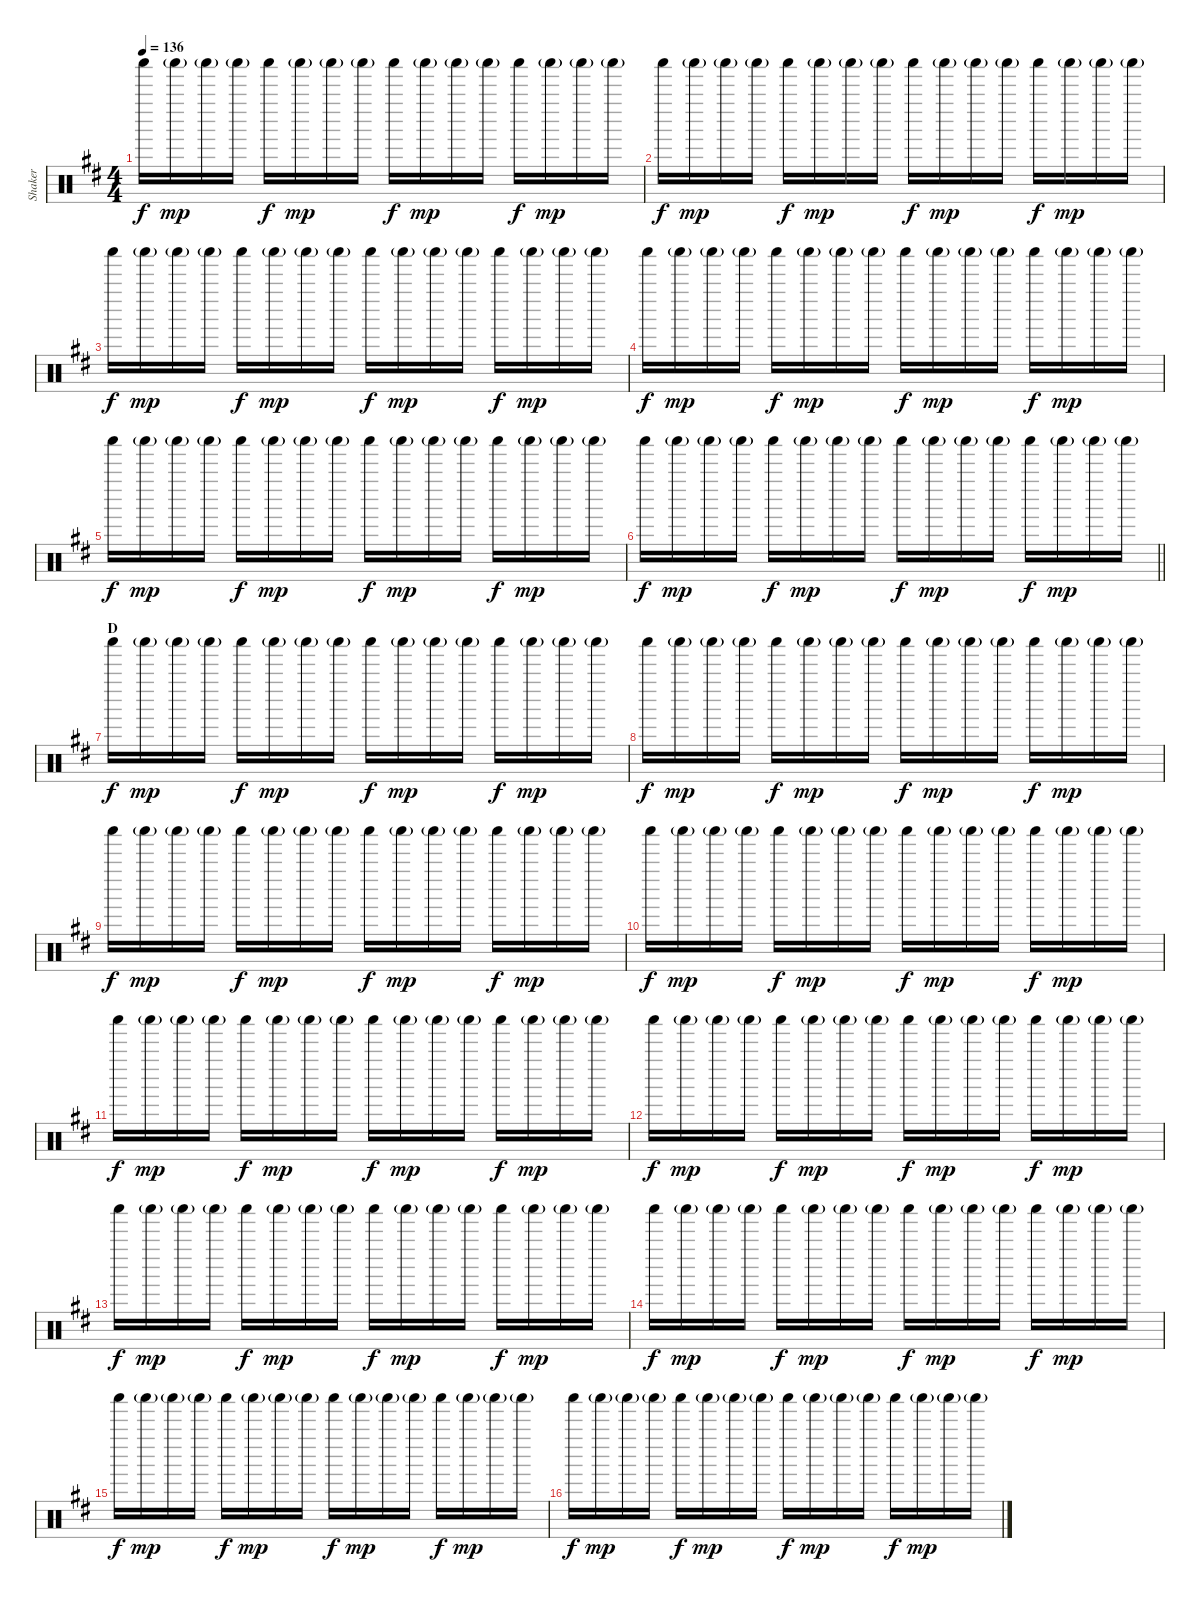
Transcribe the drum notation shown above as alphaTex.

\track ("Shaker" "Shaker") {instrument percussion}
\staff {score}
\articulation defaults
\ts (4 4)
\tempo 136
\clef neutral
\ks d "Shaker (hit)".16{dy f} "Shaker (hit)"{g}.16{dy mp} "Shaker (hit)"{g}.16 "Shaker (hit)"{g}.16 "Shaker (hit)".16{dy f} "Shaker (hit)"{g}.16{dy mp} "Shaker (hit)"{g}.16 "Shaker (hit)"{g}.16 "Shaker (hit)".16{dy f} "Shaker (hit)"{g}.16{dy mp} "Shaker (hit)"{g}.16 "Shaker (hit)"{g}.16 "Shaker (hit)".16{dy f} "Shaker (hit)"{g}.16{dy mp} "Shaker (hit)"{g}.16 "Shaker (hit)"{g}.16
|
"Shaker (hit)".16{dy f} "Shaker (hit)"{g}.16{dy mp} "Shaker (hit)"{g}.16 "Shaker (hit)"{g}.16 "Shaker (hit)".16{dy f} "Shaker (hit)"{g}.16{dy mp} "Shaker (hit)"{g}.16 "Shaker (hit)"{g}.16 "Shaker (hit)".16{dy f} "Shaker (hit)"{g}.16{dy mp} "Shaker (hit)"{g}.16 "Shaker (hit)"{g}.16 "Shaker (hit)".16{dy f} "Shaker (hit)"{g}.16{dy mp} "Shaker (hit)"{g}.16 "Shaker (hit)"{g}.16 |
"Shaker (hit)".16{dy f} "Shaker (hit)"{g}.16{dy mp} "Shaker (hit)"{g}.16 "Shaker (hit)"{g}.16 "Shaker (hit)".16{dy f} "Shaker (hit)"{g}.16{dy mp} "Shaker (hit)"{g}.16 "Shaker (hit)"{g}.16 "Shaker (hit)".16{dy f} "Shaker (hit)"{g}.16{dy mp} "Shaker (hit)"{g}.16 "Shaker (hit)"{g}.16 "Shaker (hit)".16{dy f} "Shaker (hit)"{g}.16{dy mp} "Shaker (hit)"{g}.16 "Shaker (hit)"{g}.16 |
"Shaker (hit)".16{dy f} "Shaker (hit)"{g}.16{dy mp} "Shaker (hit)"{g}.16 "Shaker (hit)"{g}.16 "Shaker (hit)".16{dy f} "Shaker (hit)"{g}.16{dy mp} "Shaker (hit)"{g}.16 "Shaker (hit)"{g}.16 "Shaker (hit)".16{dy f} "Shaker (hit)"{g}.16{dy mp} "Shaker (hit)"{g}.16 "Shaker (hit)"{g}.16 "Shaker (hit)".16{dy f} "Shaker (hit)"{g}.16{dy mp} "Shaker (hit)"{g}.16 "Shaker (hit)"{g}.16 |
"Shaker (hit)".16{dy f} "Shaker (hit)"{g}.16{dy mp} "Shaker (hit)"{g}.16 "Shaker (hit)"{g}.16 "Shaker (hit)".16{dy f} "Shaker (hit)"{g}.16{dy mp} "Shaker (hit)"{g}.16 "Shaker (hit)"{g}.16 "Shaker (hit)".16{dy f} "Shaker (hit)"{g}.16{dy mp} "Shaker (hit)"{g}.16 "Shaker (hit)"{g}.16 "Shaker (hit)".16{dy f} "Shaker (hit)"{g}.16{dy mp} "Shaker (hit)"{g}.16 "Shaker (hit)"{g}.16 |
\barLineRight lightlight "Shaker (hit)".16{dy f} "Shaker (hit)"{g}.16{dy mp} "Shaker (hit)"{g}.16 "Shaker (hit)"{g}.16 "Shaker (hit)".16{dy f} "Shaker (hit)"{g}.16{dy mp} "Shaker (hit)"{g}.16 "Shaker (hit)"{g}.16 "Shaker (hit)".16{dy f} "Shaker (hit)"{g}.16{dy mp} "Shaker (hit)"{g}.16 "Shaker (hit)"{g}.16 "Shaker (hit)".16{dy f} "Shaker (hit)"{g}.16{dy mp} "Shaker (hit)"{g}.16 "Shaker (hit)"{g}.16
|
\section ("" "D")
"Shaker (hit)".16{dy f} "Shaker (hit)"{g}.16{dy mp} "Shaker (hit)"{g}.16 "Shaker (hit)"{g}.16 "Shaker (hit)".16{dy f} "Shaker (hit)"{g}.16{dy mp} "Shaker (hit)"{g}.16 "Shaker (hit)"{g}.16 "Shaker (hit)".16{dy f} "Shaker (hit)"{g}.16{dy mp} "Shaker (hit)"{g}.16 "Shaker (hit)"{g}.16 "Shaker (hit)".16{dy f} "Shaker (hit)"{g}.16{dy mp} "Shaker (hit)"{g}.16 "Shaker (hit)"{g}.16 |
"Shaker (hit)".16{dy f} "Shaker (hit)"{g}.16{dy mp} "Shaker (hit)"{g}.16 "Shaker (hit)"{g}.16 "Shaker (hit)".16{dy f} "Shaker (hit)"{g}.16{dy mp} "Shaker (hit)"{g}.16 "Shaker (hit)"{g}.16 "Shaker (hit)".16{dy f} "Shaker (hit)"{g}.16{dy mp} "Shaker (hit)"{g}.16 "Shaker (hit)"{g}.16 "Shaker (hit)".16{dy f} "Shaker (hit)"{g}.16{dy mp} "Shaker (hit)"{g}.16 "Shaker (hit)"{g}.16 |
"Shaker (hit)".16{dy f} "Shaker (hit)"{g}.16{dy mp} "Shaker (hit)"{g}.16 "Shaker (hit)"{g}.16 "Shaker (hit)".16{dy f} "Shaker (hit)"{g}.16{dy mp} "Shaker (hit)"{g}.16 "Shaker (hit)"{g}.16 "Shaker (hit)".16{dy f} "Shaker (hit)"{g}.16{dy mp} "Shaker (hit)"{g}.16 "Shaker (hit)"{g}.16 "Shaker (hit)".16{dy f} "Shaker (hit)"{g}.16{dy mp} "Shaker (hit)"{g}.16 "Shaker (hit)"{g}.16 |
"Shaker (hit)".16{dy f} "Shaker (hit)"{g}.16{dy mp} "Shaker (hit)"{g}.16 "Shaker (hit)"{g}.16 "Shaker (hit)".16{dy f} "Shaker (hit)"{g}.16{dy mp} "Shaker (hit)"{g}.16 "Shaker (hit)"{g}.16 "Shaker (hit)".16{dy f} "Shaker (hit)"{g}.16{dy mp} "Shaker (hit)"{g}.16 "Shaker (hit)"{g}.16 "Shaker (hit)".16{dy f} "Shaker (hit)"{g}.16{dy mp} "Shaker (hit)"{g}.16 "Shaker (hit)"{g}.16 |
"Shaker (hit)".16{dy f} "Shaker (hit)"{g}.16{dy mp} "Shaker (hit)"{g}.16 "Shaker (hit)"{g}.16 "Shaker (hit)".16{dy f} "Shaker (hit)"{g}.16{dy mp} "Shaker (hit)"{g}.16 "Shaker (hit)"{g}.16 "Shaker (hit)".16{dy f} "Shaker (hit)"{g}.16{dy mp} "Shaker (hit)"{g}.16 "Shaker (hit)"{g}.16 "Shaker (hit)".16{dy f} "Shaker (hit)"{g}.16{dy mp} "Shaker (hit)"{g}.16 "Shaker (hit)"{g}.16 |
"Shaker (hit)".16{dy f} "Shaker (hit)"{g}.16{dy mp} "Shaker (hit)"{g}.16 "Shaker (hit)"{g}.16 "Shaker (hit)".16{dy f} "Shaker (hit)"{g}.16{dy mp} "Shaker (hit)"{g}.16 "Shaker (hit)"{g}.16 "Shaker (hit)".16{dy f} "Shaker (hit)"{g}.16{dy mp} "Shaker (hit)"{g}.16 "Shaker (hit)"{g}.16 "Shaker (hit)".16{dy f} "Shaker (hit)"{g}.16{dy mp} "Shaker (hit)"{g}.16 "Shaker (hit)"{g}.16 |
"Shaker (hit)".16{dy f} "Shaker (hit)"{g}.16{dy mp} "Shaker (hit)"{g}.16 "Shaker (hit)"{g}.16 "Shaker (hit)".16{dy f} "Shaker (hit)"{g}.16{dy mp} "Shaker (hit)"{g}.16 "Shaker (hit)"{g}.16 "Shaker (hit)".16{dy f} "Shaker (hit)"{g}.16{dy mp} "Shaker (hit)"{g}.16 "Shaker (hit)"{g}.16 "Shaker (hit)".16{dy f} "Shaker (hit)"{g}.16{dy mp} "Shaker (hit)"{g}.16 "Shaker (hit)"{g}.16 |
"Shaker (hit)".16{dy f} "Shaker (hit)"{g}.16{dy mp} "Shaker (hit)"{g}.16 "Shaker (hit)"{g}.16 "Shaker (hit)".16{dy f} "Shaker (hit)"{g}.16{dy mp} "Shaker (hit)"{g}.16 "Shaker (hit)"{g}.16 "Shaker (hit)".16{dy f} "Shaker (hit)"{g}.16{dy mp} "Shaker (hit)"{g}.16 "Shaker (hit)"{g}.16 "Shaker (hit)".16{dy f} "Shaker (hit)"{g}.16{dy mp} "Shaker (hit)"{g}.16 "Shaker (hit)"{g}.16 |
"Shaker (hit)".16{dy f} "Shaker (hit)"{g}.16{dy mp} "Shaker (hit)"{g}.16 "Shaker (hit)"{g}.16 "Shaker (hit)".16{dy f} "Shaker (hit)"{g}.16{dy mp} "Shaker (hit)"{g}.16 "Shaker (hit)"{g}.16 "Shaker (hit)".16{dy f} "Shaker (hit)"{g}.16{dy mp} "Shaker (hit)"{g}.16 "Shaker (hit)"{g}.16 "Shaker (hit)".16{dy f} "Shaker (hit)"{g}.16{dy mp} "Shaker (hit)"{g}.16 "Shaker (hit)"{g}.16 |
"Shaker (hit)".16{dy f} "Shaker (hit)"{g}.16{dy mp} "Shaker (hit)"{g}.16 "Shaker (hit)"{g}.16 "Shaker (hit)".16{dy f} "Shaker (hit)"{g}.16{dy mp} "Shaker (hit)"{g}.16 "Shaker (hit)"{g}.16 "Shaker (hit)".16{dy f} "Shaker (hit)"{g}.16{dy mp} "Shaker (hit)"{g}.16 "Shaker (hit)"{g}.16 "Shaker (hit)".16{dy f} "Shaker (hit)"{g}.16{dy mp} "Shaker (hit)"{g}.16 "Shaker (hit)"{g}.16
